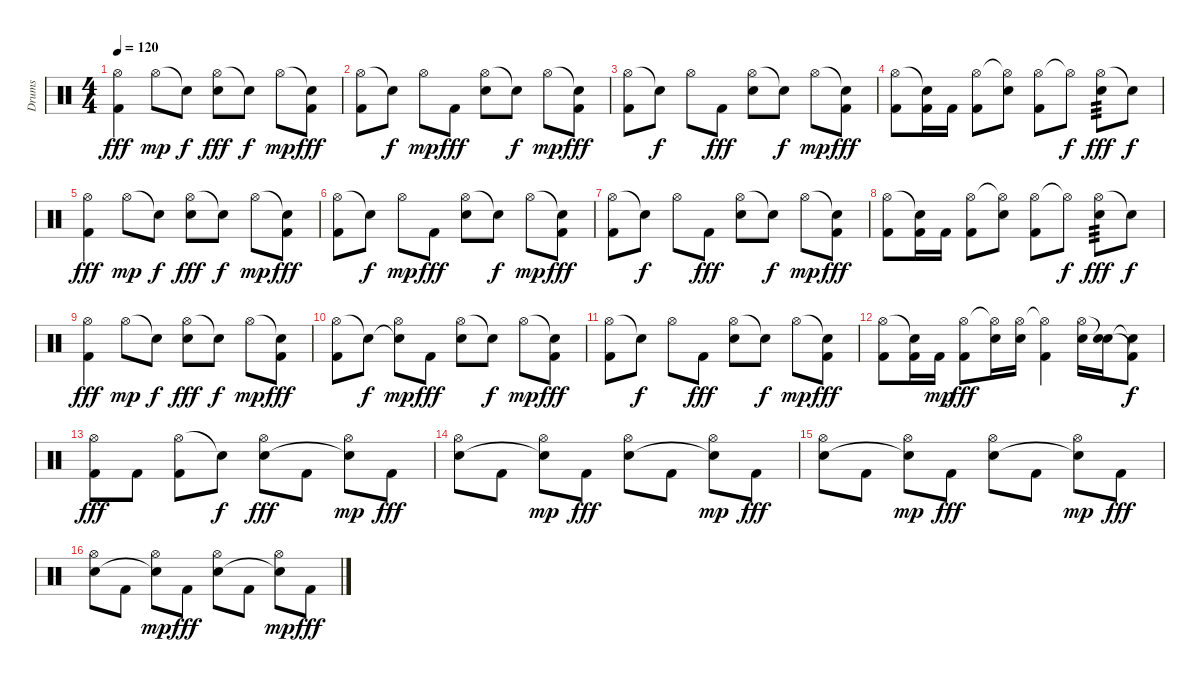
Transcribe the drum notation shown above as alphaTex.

\track ("Drums" "Drums") {instrument percussion}
\staff {score}
\articulation defaults
\ts (4 4)
\tempo 120
\clef neutral
\ks c
("Hi-Hat (open)" "Kick (hit) 2").4{dy fff} "Hi-Hat (open)".8{dy mp} "Snare (hit)"{t}.8{dy f} ("Hi-Hat (open)" "Electric Snare (hit)").8{dy fff} "Snare (hit)"{t}.8{dy f} "Hi-Hat (open)".8{dy mp} ("Snare (hit)"{t} "Kick (hit) 2").8{dy fff} |
("Hi-Hat (open)" "Kick (hit) 2").8 "Snare (hit)"{t}.8{dy f} "Hi-Hat (open)".8{dy mp} "Kick (hit) 2".8{dy fff} ("Hi-Hat (open)" "Electric Snare (hit)").8 "Snare (hit)"{t}.8{dy f} "Hi-Hat (open)".8{dy mp} ("Snare (hit)"{t} "Kick (hit) 2").8{dy fff} |
("Hi-Hat (open)" "Kick (hit) 2").8 "Snare (hit)"{t}.8{dy f} "Hi-Hat (open)".8 "Kick (hit) 2".8{dy fff} ("Hi-Hat (open)" "Electric Snare (hit)").8 "Snare (hit)"{t}.8{dy f} "Hi-Hat (open)".8{dy mp} ("Snare (hit)"{t} "Kick (hit) 2").8{dy fff} |
("Hi-Hat (open)" "Kick (hit) 2").8 ("Snare (hit)"{t} "Kick (hit) 2").16 "Kick (hit) 2".16 ("Hi-Hat (open)" "Kick (hit) 2").8 ("Hi-Hat (open)"{t} "Electric Snare (hit)").8 ("Hi-Hat (open)" "Kick (hit) 2").8 "Hi-Hat (open)"{t}.8{dy f} ("Hi-Hat (open)" "Electric Snare (hit)").8{tp 3 dy fff} "Snare (hit)"{t}.8{dy f} |
("Hi-Hat (open)" "Kick (hit) 2").4{dy fff} "Hi-Hat (open)".8{dy mp} "Snare (hit)"{t}.8{dy f} ("Hi-Hat (open)" "Electric Snare (hit)").8{dy fff} "Snare (hit)"{t}.8{dy f} "Hi-Hat (open)".8{dy mp} ("Snare (hit)"{t} "Kick (hit) 2").8{dy fff} |
("Hi-Hat (open)" "Kick (hit) 2").8 "Snare (hit)"{t}.8{dy f} "Hi-Hat (open)".8{dy mp} "Kick (hit) 2".8{dy fff} ("Hi-Hat (open)" "Electric Snare (hit)").8 "Snare (hit)"{t}.8{dy f} "Hi-Hat (open)".8{dy mp} ("Snare (hit)"{t} "Kick (hit) 2").8{dy fff} |
("Hi-Hat (open)" "Kick (hit) 2").8 "Snare (hit)"{t}.8{dy f} "Hi-Hat (open)".8 "Kick (hit) 2".8{dy fff} ("Hi-Hat (open)" "Electric Snare (hit)").8 "Snare (hit)"{t}.8{dy f} "Hi-Hat (open)".8{dy mp} ("Snare (hit)"{t} "Kick (hit) 2").8{dy fff} |
("Hi-Hat (open)" "Kick (hit) 2").8 ("Snare (hit)"{t} "Kick (hit) 2").16 "Kick (hit) 2".16 ("Hi-Hat (open)" "Kick (hit) 2").8 ("Hi-Hat (open)"{t} "Electric Snare (hit)").8 ("Hi-Hat (open)" "Kick (hit) 2").8 "Hi-Hat (open)"{t}.8{dy f} ("Hi-Hat (open)" "Electric Snare (hit)").8{tp 3 dy fff} "Snare (hit)"{t}.8{dy f} |
("Hi-Hat (open)" "Kick (hit) 2").4{dy fff} "Hi-Hat (open)".8{dy mp} "Snare (hit)"{t}.8{dy f} ("Hi-Hat (open)" "Electric Snare (hit)").8{dy fff} "Snare (hit)"{t}.8{dy f} "Hi-Hat (open)".8{dy mp} ("Snare (hit)"{t} "Kick (hit) 2").8{dy fff} |
("Hi-Hat (open)" "Kick (hit) 2").8 "Snare (hit)"{t}.8{dy f} ("Snare (hit)"{t} "Hi-Hat (open)").8{dy mp} "Kick (hit) 2".8{dy fff} ("Hi-Hat (open)" "Electric Snare (hit)").8 "Snare (hit)"{t}.8{dy f} "Hi-Hat (open)".8{dy mp} ("Snare (hit)"{t} "Kick (hit) 2").8{dy fff} |
("Hi-Hat (open)" "Kick (hit) 2").8 "Snare (hit)"{t}.8{dy f} "Hi-Hat (open)".8 "Kick (hit) 2".8{dy fff} ("Hi-Hat (open)" "Electric Snare (hit)").8 "Snare (hit)"{t}.8{dy f} "Hi-Hat (open)".8{dy mp} ("Snare (hit)"{t} "Kick (hit) 2").8{dy fff} |
("Hi-Hat (open)" "Kick (hit) 2").8 ("Snare (hit)"{t} "Kick (hit) 2").16 "Kick (hit) 2".16{dy mp} ("Hi-Hat (open)" "Kick (hit) 2").8{dy fff} ("Hi-Hat (open)"{t} "Electric Snare (hit)").16 ("Hi-Hat (open)" "Electric Snare (hit)").16 ("Hi-Hat (open)"{t} "Kick (hit) 2").4 ("Hi-Hat (open)" "Electric Snare (hit)").16 ("Snare (hit)"{t} "Electric Snare (hit)").16 ("Snare (hit)"{t} "Kick (hit) 2"{t}).8{dy f} |
("Hi-Hat (open)" "Kick (hit) 2").8{dy fff} "Kick (hit) 2".8 ("Hi-Hat (open)" "Kick (hit) 2").8 "Snare (hit)"{t}.8{dy f} ("Hi-Hat (open)" "Electric Snare (hit)").8{dy fff} "Kick (hit) 2".8 ("Hi-Hat (open)" "Snare (hit)"{t}).8{dy mp} "Kick (hit) 2".8{dy fff} |
("Hi-Hat (open)" "Electric Snare (hit)").8 "Kick (hit) 2".8 ("Hi-Hat (open)" "Snare (hit)"{t}).8{dy mp} "Kick (hit) 2".8{dy fff} ("Hi-Hat (open)" "Electric Snare (hit)").8 "Kick (hit) 2".8 ("Hi-Hat (open)" "Snare (hit)"{t}).8{dy mp} "Kick (hit) 2".8{dy fff} |
("Hi-Hat (open)" "Electric Snare (hit)").8 "Kick (hit) 2".8 ("Hi-Hat (open)" "Snare (hit)"{t}).8{dy mp} "Kick (hit) 2".8{dy fff} ("Hi-Hat (open)" "Electric Snare (hit)").8 "Kick (hit) 2".8 ("Hi-Hat (open)" "Snare (hit)"{t}).8{dy mp} "Kick (hit) 2".8{dy fff} |
("Hi-Hat (open)" "Electric Snare (hit)").8 "Kick (hit) 2".8 ("Hi-Hat (open)" "Snare (hit)"{t}).8{dy mp} "Kick (hit) 2".8{dy fff} ("Hi-Hat (open)" "Electric Snare (hit)").8 "Kick (hit) 2".8 ("Hi-Hat (open)" "Snare (hit)"{t}).8{dy mp} "Kick (hit) 2".8{dy fff}
